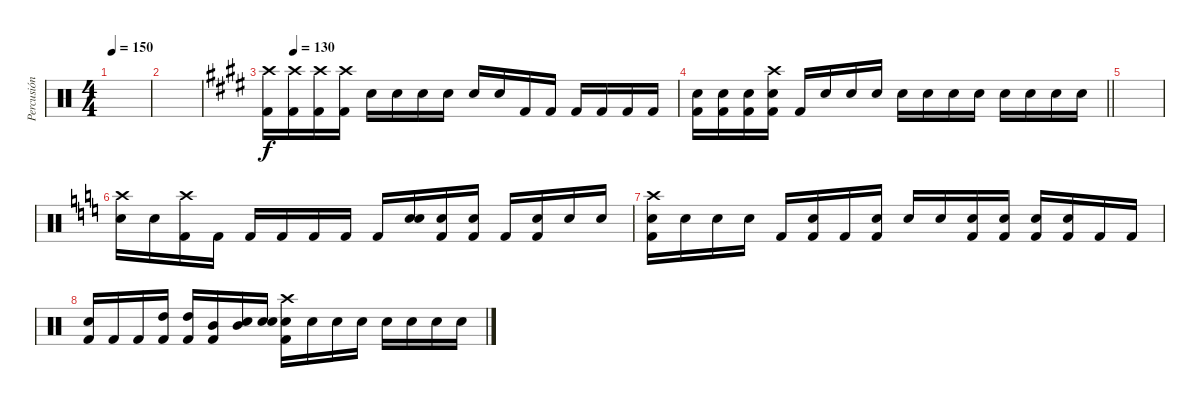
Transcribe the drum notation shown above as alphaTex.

\track ("Percusión" "Percusión") {instrument percussion}
\staff {score}
\articulation defaults
\ts (4 4)
\tempo 150
\clef neutral
\ks c
|
|
\tempo (130 0.0625)
\ks e
("Crash high (hit)" "Kick (hit) 2").16 ("Crash high (hit)" "Kick (hit) 2").16 ("Crash high (hit)" "Kick (hit) 2").16 ("Crash high (hit)" "Kick (hit) 2").16 "Snare (hit)".16 "Snare (hit) 2".16 "Snare (hit) 2".16 "Snare (hit) 2".16 "Snare (hit) 2".16 "Snare (hit)".16 "Kick (hit) 2".16 "Kick (hit) 2".16 "Kick (hit) 2".16 "Kick (hit) 2".16 "Kick (hit) 2".16 "Kick (hit) 2".16 |
\barLineRight lightlight
\ks c#minor
("Snare (hit) 2" "Kick (hit) 2").16 ("Snare (hit) 2" "Kick (hit) 2").16 ("Snare (hit) 2" "Kick (hit) 2").16 ("Crash high (hit)" "Snare (hit) 2" "Kick (hit) 2").16 "Kick (hit) 2".16 "Snare (hit)".16 "Snare (hit)".16 "Snare (hit)".16 "Snare (hit)".16 "Snare (hit)".16 "Snare (hit)".16 "Snare (hit)".16 "Snare (hit)".16 "Snare (hit)".16 "Snare (hit)".16 "Snare (hit)".16 |
\ks e
|
\ks c
("Crash high (hit)" "Snare (hit) 2").16 "Snare (hit) 2".16 ("Crash high (hit)" "Kick (hit) 2").16 "Kick (hit) 2".16 "Kick (hit) 2".16 "Kick (hit) 2".16 "Kick (hit) 2".16 "Kick (hit) 2".16 "Kick (hit) 2".16 ("Snare (hit) 2" "Snare (hit)").16 ("Snare (hit)" "Kick (hit) 2").16 ("Snare (hit) 2" "Kick (hit) 2").16 "Kick (hit) 2".16 ("Snare (hit) 2" "Kick (hit) 2").16 "Snare (hit)".16 "Snare (hit)".16 |
("Crash high (hit)" "Snare (hit) 2" "Kick (hit) 2").16 "Snare (hit) 2".16 "Snare (hit) 2".16 "Snare (hit) 2".16 "Kick (hit) 2".16 ("Snare (hit) 2" "Kick (hit) 2").16 "Kick (hit) 2".16 ("Snare (hit) 2" "Kick (hit) 2").16 "Snare (hit) 2".16 "Snare (hit) 2".16 ("Snare (hit)" "Kick (hit) 2").16 ("Snare (hit)" "Kick (hit) 2").16 ("Snare (hit)" "Kick (hit) 2").16 ("Snare (hit)" "Kick (hit) 2").16 "Kick (hit) 2".16 "Kick (hit) 2".16 |
("Snare (hit) 2" "Kick (hit) 2").16 "Kick (hit) 2".16 "Kick (hit) 2".16 ("High Tom (hit)" "Kick (hit) 2").16 ("High Tom (hit)" "Kick (hit) 2").16 ("Mid Tom (hit)" "Kick (hit) 2").16 ("Mid Tom (hit)" "Snare (hit)").16 ("Snare (hit) 2" "Snare (hit)").16 ("Crash high (hit)" "Snare (hit) 2" "Kick (hit) 2").16 "Snare (hit)".16 "Snare (hit)".16 "Snare (hit)".16 "Snare (hit)".16 "Snare (hit)".16 "Snare (hit)".16 "Snare (hit)".16
